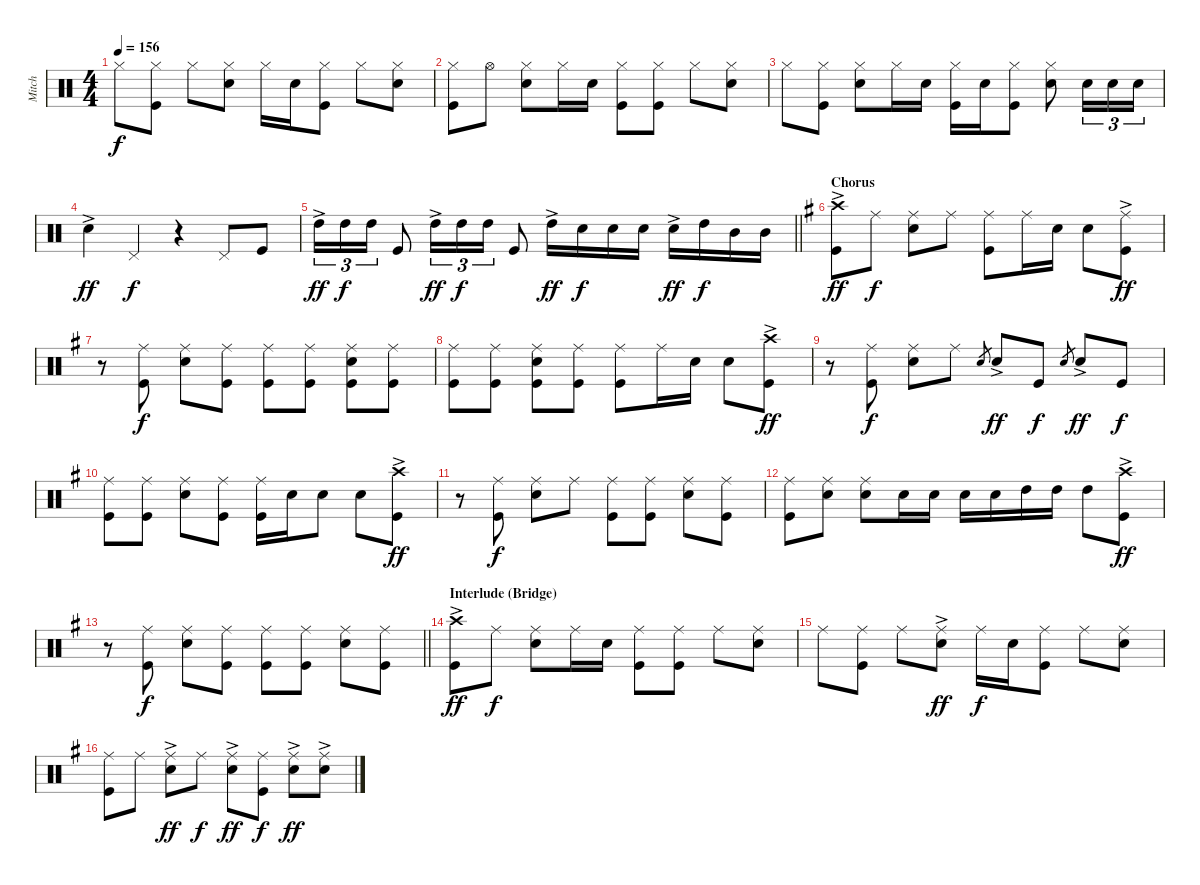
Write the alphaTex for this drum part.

\track ("Mitch" "Mitch") {instrument percussion}
\staff {score}
\articulation defaults
\ts (4 4)
\tempo 156
\clef neutral
\ks c "Hi-Hat (closed)".8{dy f}
("Hi-Hat (closed)" "Kick (hit)").8 "Hi-Hat (closed)".8 ("Hi-Hat (closed)" "Snare (hit) 2").8 "Hi-Hat (closed)".16 "Snare (hit) 2".16 ("Hi-Hat (closed)" "Kick (hit)").8 "Hi-Hat (closed)".8 ("Hi-Hat (closed)" "Snare (hit) 2").8 |
("Hi-Hat (closed)" "Kick (hit)").8 "Hi-Hat (open)".8 ("Hi-Hat (closed)" "Snare (hit) 2").8 "Hi-Hat (closed)".16 "Snare (hit) 2".16 ("Hi-Hat (closed)" "Kick (hit)").8 ("Hi-Hat (closed)" "Kick (hit)").8 "Hi-Hat (closed)".8 ("Hi-Hat (closed)" "Snare (hit) 2").8 |
"Hi-Hat (closed)".8 ("Hi-Hat (closed)" "Kick (hit)").8 ("Hi-Hat (closed)" "Snare (hit) 2").8 "Hi-Hat (closed)".16 "Snare (hit) 2".16 ("Hi-Hat (closed)" "Kick (hit)").16 "Snare (hit) 2".16 ("Hi-Hat (closed)" "Kick (hit)").8 ("Hi-Hat (closed)" "Snare (hit) 2").8 "Snare (hit) 2".16{tu (3 2)} "Snare (hit) 2".16{tu (3 2)} "Snare (hit) 2".16{tu (3 2)} |
"Snare (hit) 2"{ac}.4{dy ff} "Pedal Hi-Hat (hit)".4{dy f} r.4 "Pedal Hi-Hat (hit)".8 "Kick (hit)".8 |
\barLineRight lightlight "High Tom (hit)"{ac}.16{tu (3 2) dy ff} "High Tom (hit)".16{tu (3 2) dy f} "High Tom (hit)".16{tu (3 2)} "Kick (hit)".8 "High Tom (hit)"{ac}.16{tu (3 2) dy ff} "High Tom (hit)".16{tu (3 2) dy f} "High Tom (hit)".16{tu (3 2)} "Kick (hit)".8 "High Tom (hit)"{ac}.16{dy ff} "Snare (hit) 2".16{dy f} "Snare (hit) 2".16 "Snare (hit) 2".16 "Snare (hit) 2"{ac}.16{dy ff} "High Tom (hit)".16{dy f} "Mid Tom (hit)".16 "Mid Tom (hit)".16
|
\section ("" "Chorus")
\ks g
("Crash high (hit)"{ac} "Kick (hit)").8{dy ff} "Ride (middle)".8{dy f} ("Ride (middle)" "Snare (hit) 2").8 "Ride (middle)".8 ("Ride (middle)" "Kick (hit)").8 "Ride (middle)".16 "Snare (hit) 2".16 "Snare (hit) 2".8 ("Ride (middle)"{ac} "Kick (hit)").8{dy ff} |
r.8 ("Ride (middle)" "Kick (hit)").8{dy f} ("Ride (middle)" "Snare (hit) 2").8 ("Ride (middle)" "Kick (hit)").8 ("Ride (middle)" "Kick (hit)").8 ("Ride (middle)" "Kick (hit)").8 ("Ride (middle)" "Snare (hit) 2" "Kick (hit)").8 ("Ride (middle)" "Kick (hit)").8 |
("Ride (middle)" "Kick (hit)").8 ("Ride (middle)" "Kick (hit)").8 ("Ride (middle)" "Snare (hit) 2" "Kick (hit)").8 ("Ride (middle)" "Kick (hit)").8 ("Ride (middle)" "Kick (hit)").8 "Ride (middle)".16 "Snare (hit) 2".16 "Snare (hit) 2".8 ("Crash high (hit)"{ac} "Kick (hit)").8{dy ff} |
r.8 ("Ride (middle)" "Kick (hit)").8{dy f} ("Ride (middle)" "Snare (hit) 2").8 "Ride (middle)".8 "Snare (hit) 2".8{gr} "Snare (hit) 2"{ac}.8{dy ff} "Kick (hit)".8{dy f} "Snare (hit) 2".8{gr} "Snare (hit) 2"{ac}.8{dy ff} "Kick (hit)".8{dy f} |
("Ride (middle)" "Kick (hit)").8 ("Ride (middle)" "Kick (hit)").8 ("Ride (middle)" "Snare (hit) 2").8 ("Ride (middle)" "Kick (hit)").8 ("Ride (middle)" "Kick (hit)").16 "Snare (hit) 2".16 "Snare (hit) 2".8 "Snare (hit) 2".8 ("Crash high (hit)"{ac} "Kick (hit)").8{dy ff} |
r.8 ("Ride (middle)" "Kick (hit)").8{dy f} ("Ride (middle)" "Snare (hit) 2").8 "Ride (middle)".8 ("Ride (middle)" "Kick (hit)").8 ("Ride (middle)" "Kick (hit)").8 ("Ride (middle)" "Snare (hit) 2").8 ("Ride (middle)" "Kick (hit)").8 |
("Ride (middle)" "Kick (hit)").8 ("Ride (middle)" "Snare (hit) 2").8 ("Ride (middle)" "Snare (hit) 2").8 "Snare (hit) 2".16 "Snare (hit) 2".16 "Snare (hit) 2".16 "Snare (hit) 2".16 "High Tom (hit)".16 "High Tom (hit)".16 "High Tom (hit)".8 ("Crash high (hit)"{ac} "Kick (hit)").8{dy ff} |
\barLineRight lightlight
r.8 ("Ride (middle)" "Kick (hit)").8{dy f} ("Ride (middle)" "Snare (hit) 2").8 ("Ride (middle)" "Kick (hit)").8 ("Ride (middle)" "Kick (hit)").8 ("Ride (middle)" "Kick (hit)").8 ("Ride (middle)" "Snare (hit) 2").8 ("Ride (middle)" "Kick (hit)").8 |
\section ("" "Interlude (Bridge)")
("Crash high (hit)"{ac} "Kick (hit)").8{dy ff} "Ride (middle)".8{dy f} ("Ride (middle)" "Snare (hit) 2").8 "Ride (middle)".16 "Snare (hit) 2".16 ("Ride (middle)" "Kick (hit)").8 ("Ride (middle)" "Kick (hit)").8 "Ride (middle)".8 ("Ride (middle)" "Snare (hit) 2").8 |
"Ride (middle)".8 ("Ride (middle)" "Kick (hit)").8 "Ride (middle)".8 ("Ride (middle)" "Snare (hit) 2"{ac}).8{dy ff} "Ride (middle)".16{dy f} "Snare (hit) 2".16 ("Ride (middle)" "Kick (hit)").8 "Ride (middle)".8 ("Ride (middle)" "Snare (hit) 2").8 |
("Ride (middle)" "Kick (hit)").8 "Ride (middle)".8 ("Ride (middle)" "Snare (hit) 2"{ac}).8{dy ff} "Ride (middle)".8{dy f} ("Ride (middle)" "Snare (hit) 2"{ac}).8{dy ff} ("Ride (middle)" "Kick (hit)").8{dy f} ("Ride (middle)" "Snare (hit) 2"{ac}).8{dy ff} ("Ride (middle)" "Snare (hit) 2"{ac}).8
